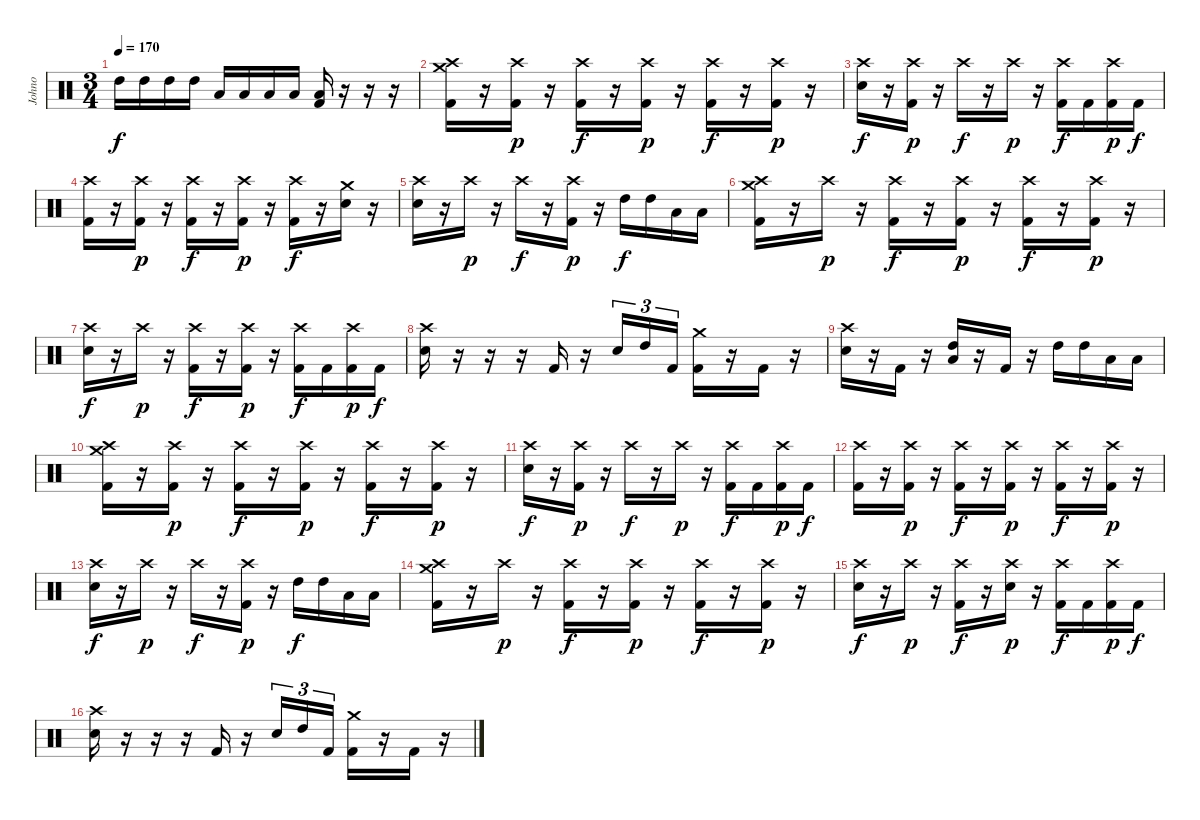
\track ("Johno" "Johno") {instrument percussion}
\staff {score}
\articulation defaults
\ts (3 4)
\tempo 170
\clef neutral
\ks c "High Tom (hit)".16{dy f} "High Tom (hit)".16 "High Tom (hit)".16 "High Tom (hit)".16 "Low Floor Tom (hit)".16 "Low Floor Tom (hit)".16 "Low Floor Tom (hit)".16 "Low Floor Tom (hit)".16
("Low Floor Tom (hit)" "Kick (hit) 2").16 r.16 r.16 r.16 |
("Crash medium (hit)" "Crash high (hit)" "Kick (hit) 2").16 r.16 ("Crash high (hit)" "Kick (hit) 2").16{dy p} r.16 ("Crash high (hit)" "Kick (hit) 2").16{dy f} r.16 ("Crash high (hit)" "Kick (hit) 2").16{dy p} r.16 ("Crash high (hit)" "Kick (hit) 2").16{dy f} r.16 ("Crash high (hit)" "Kick (hit) 2").16{dy p} r.16 |
("Crash high (hit)" "Electric Snare (hit)").16{dy f} r.16 ("Crash high (hit)" "Kick (hit) 2").16{dy p} r.16 "Crash high (hit)".16{dy f} r.16 "Crash high (hit)".16{dy p} r.16 ("Crash high (hit)" "Kick (hit) 2").16{dy f} "Kick (hit) 2".16 ("Crash high (hit)" "Kick (hit) 2").16{dy p} "Kick (hit) 2".16{dy f} |
("Crash high (hit)" "Kick (hit) 2").16 r.16 ("Crash high (hit)" "Kick (hit) 2").16{dy p} r.16 ("Crash high (hit)" "Kick (hit) 2").16{dy f} r.16 ("Crash high (hit)" "Kick (hit) 2").16{dy p} r.16 ("Crash high (hit)" "Kick (hit) 2").16{dy f} r.16 ("Crash medium (hit)" "Electric Snare (hit)").16 r.16 |
("Crash high (hit)" "Electric Snare (hit)").16 r.16 "Crash high (hit)".16{dy p} r.16 "Crash high (hit)".16{dy f} r.16 ("Crash high (hit)" "Kick (hit) 2").16{dy p} r.16 "High Tom (hit)".16{dy f} "High Tom (hit)".16 "Low Floor Tom (hit)".16 "Low Floor Tom (hit)".16 |
("Crash medium (hit)" "Crash high (hit)" "Kick (hit) 2").16 r.16 "Crash high (hit)".16{dy p} r.16 ("Crash high (hit)" "Kick (hit) 2").16{dy f} r.16 ("Crash high (hit)" "Kick (hit) 2").16{dy p} r.16 ("Crash high (hit)" "Kick (hit) 2").16{dy f} r.16 ("Crash high (hit)" "Kick (hit) 2").16{dy p} r.16 |
("Crash high (hit)" "Electric Snare (hit)").16{dy f} r.16 "Crash high (hit)".16{dy p} r.16 ("Crash high (hit)" "Kick (hit) 2").16{dy f} r.16 ("Crash high (hit)" "Kick (hit) 2").16{dy p} r.16 ("Crash high (hit)" "Kick (hit) 2").16{dy f} "Kick (hit) 2".16 ("Crash high (hit)" "Kick (hit) 2").16{dy p} "Kick (hit) 2".16{dy f} |
("Crash high (hit)" "Electric Snare (hit)").16 r.16 r.16 r.16 "Kick (hit) 2".16 r.16 "Electric Snare (hit)".16{tu (3 2)} "High Tom (hit)".16{tu (3 2)} "Kick (hit) 2".16{tu (3 2)} ("Crash medium (hit)" "Kick (hit) 2").16 r.16 "Kick (hit) 2".16 r.16 |
("Crash high (hit)" "Electric Snare (hit)").16 r.16 "Kick (hit) 2".16 r.16 ("Low Floor Tom (hit)" "High Tom (hit)").16 r.16 "Kick (hit) 2".16 r.16 "High Tom (hit)".16 "High Tom (hit)".16 "Low Floor Tom (hit)".16 "Low Floor Tom (hit)".16 |
("Crash medium (hit)" "Crash high (hit)" "Kick (hit) 2").16 r.16 ("Crash high (hit)" "Kick (hit) 2").16{dy p} r.16 ("Crash high (hit)" "Kick (hit) 2").16{dy f} r.16 ("Crash high (hit)" "Kick (hit) 2").16{dy p} r.16 ("Crash high (hit)" "Kick (hit) 2").16{dy f} r.16 ("Crash high (hit)" "Kick (hit) 2").16{dy p} r.16 |
("Crash high (hit)" "Electric Snare (hit)").16{dy f} r.16 ("Crash high (hit)" "Kick (hit) 2").16{dy p} r.16 "Crash high (hit)".16{dy f} r.16 "Crash high (hit)".16{dy p} r.16 ("Crash high (hit)" "Kick (hit) 2").16{dy f} "Kick (hit) 2".16 ("Crash high (hit)" "Kick (hit) 2").16{dy p} "Kick (hit) 2".16{dy f} |
("Crash high (hit)" "Kick (hit) 2").16 r.16 ("Crash high (hit)" "Kick (hit) 2").16{dy p} r.16 ("Crash high (hit)" "Kick (hit) 2").16{dy f} r.16 ("Crash high (hit)" "Kick (hit) 2").16{dy p} r.16 ("Crash high (hit)" "Kick (hit) 2").16{dy f} r.16 ("Crash high (hit)" "Kick (hit) 2").16{dy p} r.16 |
("Crash high (hit)" "Electric Snare (hit)").16{dy f} r.16 "Crash high (hit)".16{dy p} r.16 "Crash high (hit)".16{dy f} r.16 ("Crash high (hit)" "Kick (hit) 2").16{dy p} r.16 "High Tom (hit)".16{dy f} "High Tom (hit)".16 "Low Floor Tom (hit)".16 "Low Floor Tom (hit)".16 |
("Crash medium (hit)" "Crash high (hit)" "Kick (hit) 2").16 r.16 "Crash high (hit)".16{dy p} r.16 ("Crash high (hit)" "Kick (hit) 2").16{dy f} r.16 ("Crash high (hit)" "Kick (hit) 2").16{dy p} r.16 ("Crash high (hit)" "Kick (hit) 2").16{dy f} r.16 ("Crash high (hit)" "Kick (hit) 2").16{dy p} r.16 |
("Crash high (hit)" "Electric Snare (hit)").16{dy f} r.16 "Crash high (hit)".16{dy p} r.16 ("Crash high (hit)" "Kick (hit) 2").16{dy f} r.16 ("Crash high (hit)" "Electric Snare (hit)").16{dy p} r.16 ("Crash high (hit)" "Kick (hit) 2").16{dy f} "Kick (hit) 2".16 ("Crash high (hit)" "Kick (hit) 2").16{dy p} "Kick (hit) 2".16{dy f} |
("Crash high (hit)" "Electric Snare (hit)").16 r.16 r.16 r.16 "Kick (hit) 2".16 r.16 "Electric Snare (hit)".16{tu (3 2)} "High Tom (hit)".16{tu (3 2)} "Kick (hit) 2".16{tu (3 2)} ("Crash medium (hit)" "Kick (hit) 2").16 r.16 "Kick (hit) 2".16 r.16
